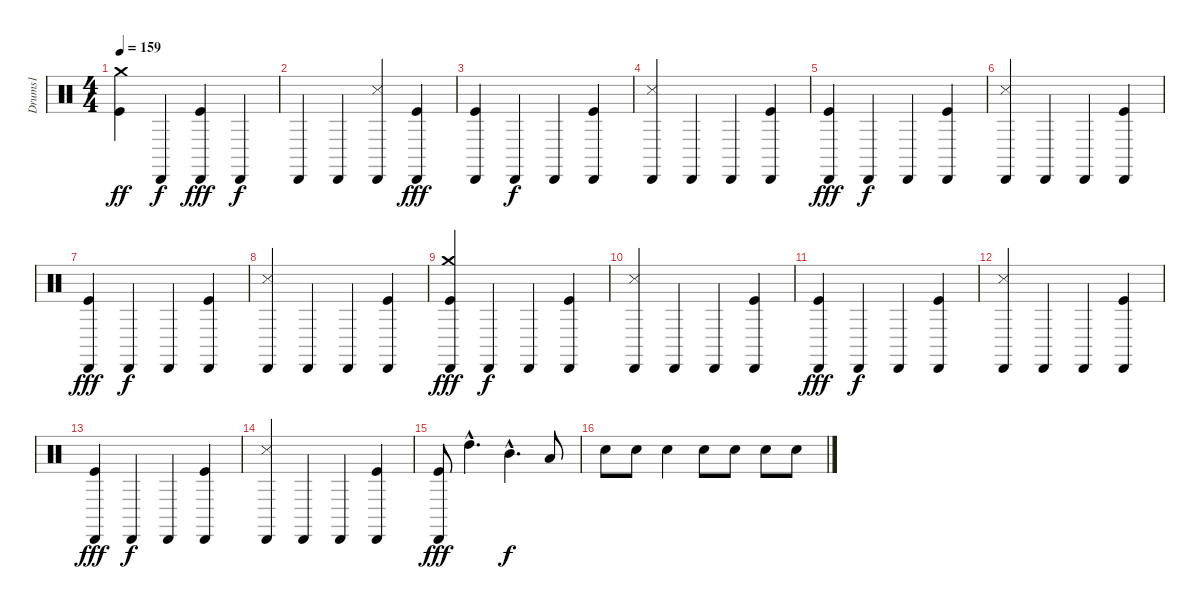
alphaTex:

\track ("Drums1" "Drums1") {instrument percussion}
\staff {score}
\articulation defaults
\ts (4 4)
\tempo 159
\clef neutral
\ks c
("Crash medium (hit)" "Kick (hit)").4{dy ff} "Cabasa (hit)".4{dy f} ("Cabasa (hit)" "Kick (hit)").4{dy fff} "Cabasa (hit)".4{dy f} |
"Cabasa (hit)".4 "Cabasa (hit)".4 ("Cabasa (hit)" "Snare (side stick) 3").4 ("Cabasa (hit)" "Kick (hit)").4{dy fff} |
("Cabasa (hit)" "Kick (hit)").4 "Cabasa (hit)".4{dy f} "Cabasa (hit)".4 ("Cabasa (hit)" "Kick (hit)").4 |
("Cabasa (hit)" "Snare (side stick) 3").4 "Cabasa (hit)".4 "Cabasa (hit)".4 ("Cabasa (hit)" "Kick (hit)").4 |
("Cabasa (hit)" "Kick (hit)").4{dy fff} "Cabasa (hit)".4{dy f} "Cabasa (hit)".4 ("Cabasa (hit)" "Kick (hit)").4 |
("Cabasa (hit)" "Snare (side stick) 3").4 "Cabasa (hit)".4 "Cabasa (hit)".4 ("Cabasa (hit)" "Kick (hit)").4 |
("Cabasa (hit)" "Kick (hit)").4{dy fff} "Cabasa (hit)".4{dy f} "Cabasa (hit)".4 ("Cabasa (hit)" "Kick (hit)").4 |
("Cabasa (hit)" "Snare (side stick) 3").4 "Cabasa (hit)".4 "Cabasa (hit)".4 ("Cabasa (hit)" "Kick (hit)").4 |
("Cabasa (hit)" "Kick (hit)" "Crash medium (hit)").4{dy fff} "Cabasa (hit)".4{dy f} "Cabasa (hit)".4 ("Cabasa (hit)" "Kick (hit)").4 |
("Cabasa (hit)" "Snare (side stick) 3").4 "Cabasa (hit)".4 "Cabasa (hit)".4 ("Cabasa (hit)" "Kick (hit)").4 |
("Cabasa (hit)" "Kick (hit)").4{dy fff} "Cabasa (hit)".4{dy f} "Cabasa (hit)".4 ("Cabasa (hit)" "Kick (hit)").4 |
("Cabasa (hit)" "Snare (side stick) 3").4 "Cabasa (hit)".4 "Cabasa (hit)".4 ("Cabasa (hit)" "Kick (hit)").4 |
("Cabasa (hit)" "Kick (hit)").4{dy fff} "Cabasa (hit)".4{dy f} "Cabasa (hit)".4 ("Cabasa (hit)" "Kick (hit)").4 |
("Cabasa (hit)" "Snare (side stick) 3").4 "Cabasa (hit)".4 "Cabasa (hit)".4 ("Cabasa (hit)" "Kick (hit)").4 |
("Cabasa (hit)" "Kick (hit)").8{dy fff} "High Tom (hit)"{hac}.4{d} "Mid Tom (hit)"{hac}.4{d dy f} "Low Tom (hit)".8 |
"Electric Snare (hit)".8 "Electric Snare (hit)".8 "Electric Snare (hit)".4 "Snare (hit) 2".8 "Snare (hit) 2".8 "Snare (hit) 2".8 "Snare (hit) 2".8
